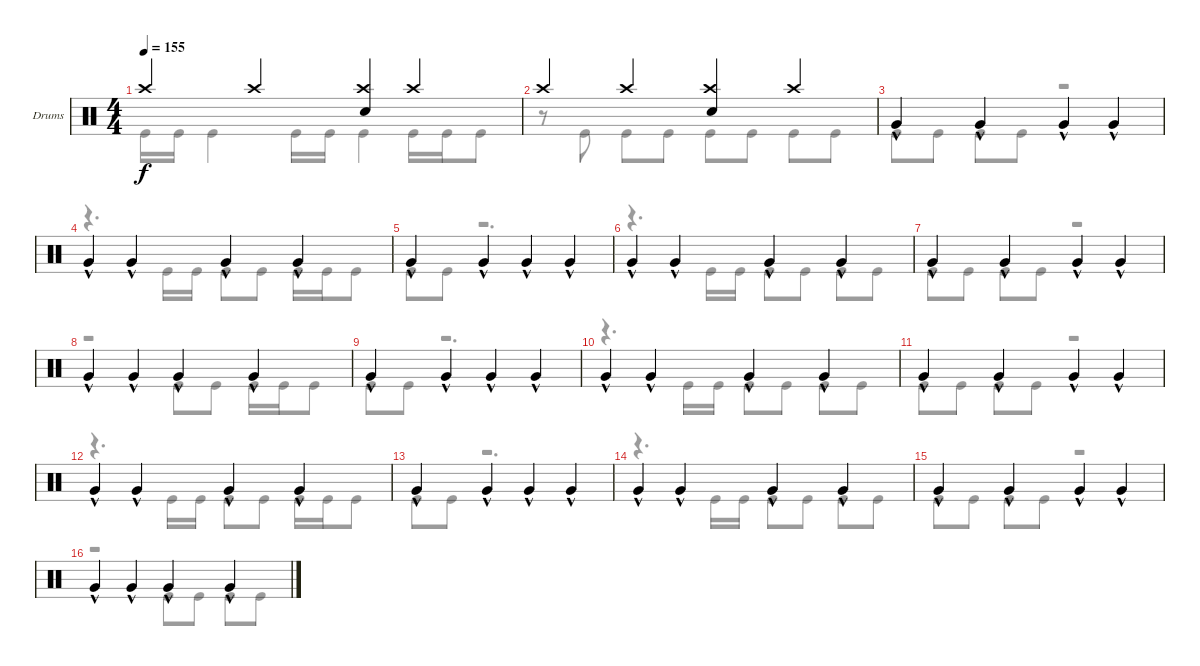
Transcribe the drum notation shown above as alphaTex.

\defaultSystemsLayout 4
\bracketExtendMode groupsimilarinstruments
\firstSystemTrackNameOrientation horizontal
\otherSystemsTrackNameOrientation horizontal
\track ("Drumkit" "Drums") {instrument percussion}
\staff {score}
\articulation defaults
\voice
\ts (4 4)
\tempo 155
\clef neutral
\scale
1.02648
\ks c "Crash high (hit)".4{dy f} "Crash high (hit)".4
("Crash high (hit)" "Snare (hit) 2").4 "Crash high (hit)".4 |
\scale
0.973518 "Crash high (hit)".4 "Crash high (hit)".4 ("Crash high (hit)" "Snare (hit) 2").4 "Crash high (hit)".4 |
\scale
1.02648 "Very Low Tom (hit)"{hac}.4 "Very Low Tom (hit)"{hac}.4 "Very Low Tom (hit)"{hac}.4 "Very Low Tom (hit)"{hac}.4 |
\scale
0.973518 "Very Low Tom (hit)"{hac}.4 "Very Low Tom (hit)"{hac}.4 "Very Low Tom (hit)"{hac}.4 "Very Low Tom (hit)"{hac}.4 |
\scale
1.02648 "Very Low Tom (hit)"{hac}.4 "Very Low Tom (hit)"{hac}.4 "Very Low Tom (hit)"{hac}.4 "Very Low Tom (hit)"{hac}.4 |
\scale
0.973518 "Very Low Tom (hit)"{hac}.4 "Very Low Tom (hit)"{hac}.4 "Very Low Tom (hit)"{hac}.4 "Very Low Tom (hit)"{hac}.4 |
\scale
1.02648 "Very Low Tom (hit)"{hac}.4 "Very Low Tom (hit)"{hac}.4 "Very Low Tom (hit)"{hac}.4 "Very Low Tom (hit)"{hac}.4 |
\scale
0.973518 "Very Low Tom (hit)"{hac}.4 "Very Low Tom (hit)"{hac}.4 "Very Low Tom (hit)"{hac}.4 "Very Low Tom (hit)"{hac}.4 |
\scale
1.02648 "Very Low Tom (hit)"{hac}.4 "Very Low Tom (hit)"{hac}.4 "Very Low Tom (hit)"{hac}.4 "Very Low Tom (hit)"{hac}.4 |
\scale
0.973518 "Very Low Tom (hit)"{hac}.4 "Very Low Tom (hit)"{hac}.4 "Very Low Tom (hit)"{hac}.4 "Very Low Tom (hit)"{hac}.4 |
\scale
1.02648 "Very Low Tom (hit)"{hac}.4 "Very Low Tom (hit)"{hac}.4 "Very Low Tom (hit)"{hac}.4 "Very Low Tom (hit)"{hac}.4 |
\scale
0.973518 "Very Low Tom (hit)"{hac}.4 "Very Low Tom (hit)"{hac}.4 "Very Low Tom (hit)"{hac}.4 "Very Low Tom (hit)"{hac}.4 |
\scale
1.02648 "Very Low Tom (hit)"{hac}.4 "Very Low Tom (hit)"{hac}.4 "Very Low Tom (hit)"{hac}.4 "Very Low Tom (hit)"{hac}.4 |
\scale
0.973518 "Very Low Tom (hit)"{hac}.4 "Very Low Tom (hit)"{hac}.4 "Very Low Tom (hit)"{hac}.4 "Very Low Tom (hit)"{hac}.4 |
\scale
1.02648 "Very Low Tom (hit)"{hac}.4 "Very Low Tom (hit)"{hac}.4 "Very Low Tom (hit)"{hac}.4 "Very Low Tom (hit)"{hac}.4 |
\scale
0.973518 "Very Low Tom (hit)"{hac}.4 "Very Low Tom (hit)"{hac}.4 "Very Low Tom (hit)"{hac}.4 "Very Low Tom (hit)"{hac}.4
\voice
\clef neutral
\ottava regular
\simile none
\scale
1.02648
\ks c "Kick (hit)".16{dy f} "Kick (hit)".16 "Kick (hit)".4 "Kick (hit)".16 "Kick (hit)".16 "Kick (hit)".4 "Kick (hit)".16 "Kick (hit)".16 "Kick (hit)".8
|
\scale
0.973518 r.8 "Kick (hit)".8 "Kick (hit)".8 "Kick (hit)".8 "Kick (hit)".8 "Kick (hit)".8 "Kick (hit)".8 "Kick (hit)".8 |
\scale
1.02648 "Kick (hit)".8 "Kick (hit)".8 "Kick (hit)".8 "Kick (hit)".8 r.2 |
\scale
0.973518 r.4{d} "Kick (hit)".16 "Kick (hit)".16 "Kick (hit)".8 "Kick (hit)".8 "Kick (hit)".16 "Kick (hit)".16 "Kick (hit)".8 |
\scale
1.02648 "Kick (hit)".8 "Kick (hit)".8 r.2{d} |
\scale
0.973518 r.4{d} "Kick (hit)".16 "Kick (hit)".16 "Kick (hit)".8 "Kick (hit)".8 "Kick (hit)".8 "Kick (hit)".8 |
\scale
1.02648 "Kick (hit)".8 "Kick (hit)".8 "Kick (hit)".8 "Kick (hit)".8 r.2 |
\scale
0.973518 r.2 "Kick (hit)".8 "Kick (hit)".8 "Kick (hit)".16 "Kick (hit)".16 "Kick (hit)".8 |
\scale
1.02648 "Kick (hit)".8 "Kick (hit)".8 r.2{d} |
\scale
0.973518 r.4{d} "Kick (hit)".16 "Kick (hit)".16 "Kick (hit)".8 "Kick (hit)".8 "Kick (hit)".8 "Kick (hit)".8 |
\scale
1.02648 "Kick (hit)".8 "Kick (hit)".8 "Kick (hit)".8 "Kick (hit)".8 r.2 |
\scale
0.973518 r.4{d} "Kick (hit)".16 "Kick (hit)".16 "Kick (hit)".8 "Kick (hit)".8 "Kick (hit)".16 "Kick (hit)".16 "Kick (hit)".8 |
\scale
1.02648 "Kick (hit)".8 "Kick (hit)".8 r.2{d} |
\scale
0.973518 r.4{d} "Kick (hit)".16 "Kick (hit)".16 "Kick (hit)".8 "Kick (hit)".8 "Kick (hit)".8 "Kick (hit)".8 |
\scale
1.02648 "Kick (hit)".8 "Kick (hit)".8 "Kick (hit)".8 "Kick (hit)".8 r.2 |
\scale
0.973518 r.2 "Kick (hit)".8 "Kick (hit)".8 "Kick (hit)".8 "Kick (hit)".8
